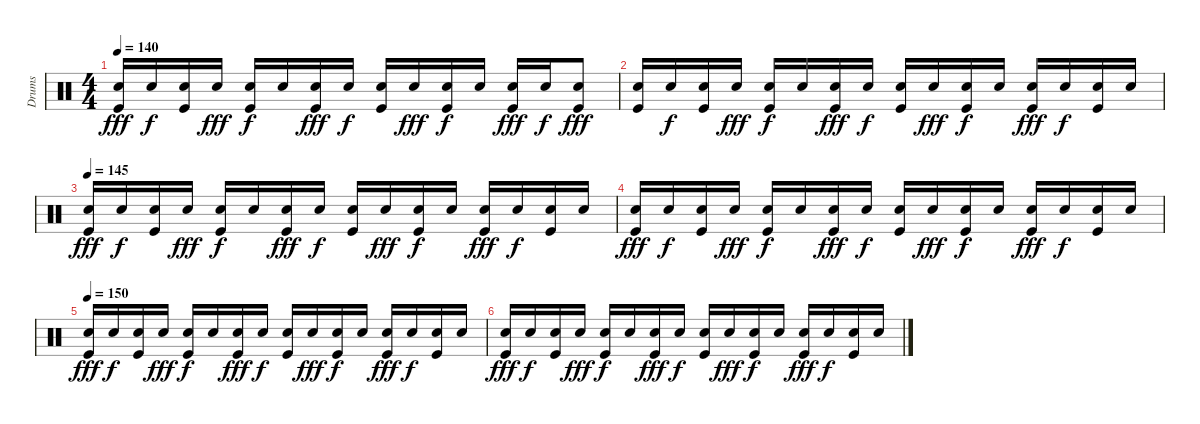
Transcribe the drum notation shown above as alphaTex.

\track ("Drums" "Drums") {instrument percussion}
\staff {score}
\articulation defaults
\ts (4 4)
\tempo 140
\clef neutral
\ks c
("Snare (hit) 2" "Kick (hit)").16{dy fff} "Snare (hit) 2".16{dy f} ("Snare (hit) 2" "Kick (hit)").16 "Snare (hit) 2".16{dy fff} ("Snare (hit) 2" "Kick (hit)").16{dy f} "Snare (hit) 2".16 ("Snare (hit) 2" "Kick (hit)").16{dy fff} "Snare (hit) 2".16{dy f} ("Snare (hit) 2" "Kick (hit)").16 "Snare (hit) 2".16{dy fff} ("Snare (hit) 2" "Kick (hit)").16{dy f} "Snare (hit) 2".16 ("Snare (hit) 2" "Kick (hit)").16{dy fff} "Snare (hit) 2".16{dy f} ("Snare (hit) 2" "Kick (hit)").8{dy fff} |
("Snare (hit) 2" "Kick (hit)").16 "Snare (hit) 2".16{dy f} ("Snare (hit) 2" "Kick (hit)").16 "Snare (hit) 2".16{dy fff} ("Snare (hit) 2" "Kick (hit)").16{dy f} "Snare (hit) 2".16 ("Snare (hit) 2" "Kick (hit)").16{dy fff} "Snare (hit) 2".16{dy f} ("Snare (hit) 2" "Kick (hit)").16 "Snare (hit) 2".16{dy fff} ("Snare (hit) 2" "Kick (hit)").16{dy f} "Snare (hit) 2".16 ("Snare (hit) 2" "Kick (hit)").16{dy fff} "Snare (hit) 2".16{dy f} ("Snare (hit) 2" "Kick (hit)").16 "Snare (hit) 2".16 |
\tempo 145
("Snare (hit) 2" "Kick (hit)").16{dy fff} "Snare (hit) 2".16{dy f} ("Snare (hit) 2" "Kick (hit)").16 "Snare (hit) 2".16{dy fff} ("Snare (hit) 2" "Kick (hit)").16{dy f} "Snare (hit) 2".16 ("Snare (hit) 2" "Kick (hit)").16{dy fff} "Snare (hit) 2".16{dy f} ("Snare (hit) 2" "Kick (hit)").16 "Snare (hit) 2".16{dy fff} ("Snare (hit) 2" "Kick (hit)").16{dy f} "Snare (hit) 2".16 ("Snare (hit) 2" "Kick (hit)").16{dy fff} "Snare (hit) 2".16{dy f} ("Snare (hit) 2" "Kick (hit)").16 "Snare (hit) 2".16 |
("Snare (hit) 2" "Kick (hit)").16{dy fff} "Snare (hit) 2".16{dy f} ("Snare (hit) 2" "Kick (hit)").16 "Snare (hit) 2".16{dy fff} ("Snare (hit) 2" "Kick (hit)").16{dy f} "Snare (hit) 2".16 ("Snare (hit) 2" "Kick (hit)").16{dy fff} "Snare (hit) 2".16{dy f} ("Snare (hit) 2" "Kick (hit)").16 "Snare (hit) 2".16{dy fff} ("Snare (hit) 2" "Kick (hit)").16{dy f} "Snare (hit) 2".16 ("Snare (hit) 2" "Kick (hit)").16{dy fff} "Snare (hit) 2".16{dy f} ("Snare (hit) 2" "Kick (hit)").16 "Snare (hit) 2".16 |
\tempo 150
("Snare (hit) 2" "Kick (hit)").16{dy fff volume 0} "Snare (hit) 2".16{dy f} ("Snare (hit) 2" "Kick (hit)").16 "Snare (hit) 2".16{dy fff} ("Snare (hit) 2" "Kick (hit)").16{dy f} "Snare (hit) 2".16 ("Snare (hit) 2" "Kick (hit)").16{dy fff} "Snare (hit) 2".16{dy f} ("Snare (hit) 2" "Kick (hit)").16 "Snare (hit) 2".16{dy fff} ("Snare (hit) 2" "Kick (hit)").16{dy f} "Snare (hit) 2".16 ("Snare (hit) 2" "Kick (hit)").16{dy fff} "Snare (hit) 2".16{dy f} ("Snare (hit) 2" "Kick (hit)").16 "Snare (hit) 2".16 |
("Snare (hit) 2" "Kick (hit)").16{dy fff} "Snare (hit) 2".16{dy f} ("Snare (hit) 2" "Kick (hit)").16 "Snare (hit) 2".16{dy fff} ("Snare (hit) 2" "Kick (hit)").16{dy f} "Snare (hit) 2".16 ("Snare (hit) 2" "Kick (hit)").16{dy fff} "Snare (hit) 2".16{dy f} ("Snare (hit) 2" "Kick (hit)").16 "Snare (hit) 2".16{dy fff} ("Snare (hit) 2" "Kick (hit)").16{dy f} "Snare (hit) 2".16 ("Snare (hit) 2" "Kick (hit)").16{dy fff} "Snare (hit) 2".16{dy f} ("Snare (hit) 2" "Kick (hit)").16 "Snare (hit) 2".16
